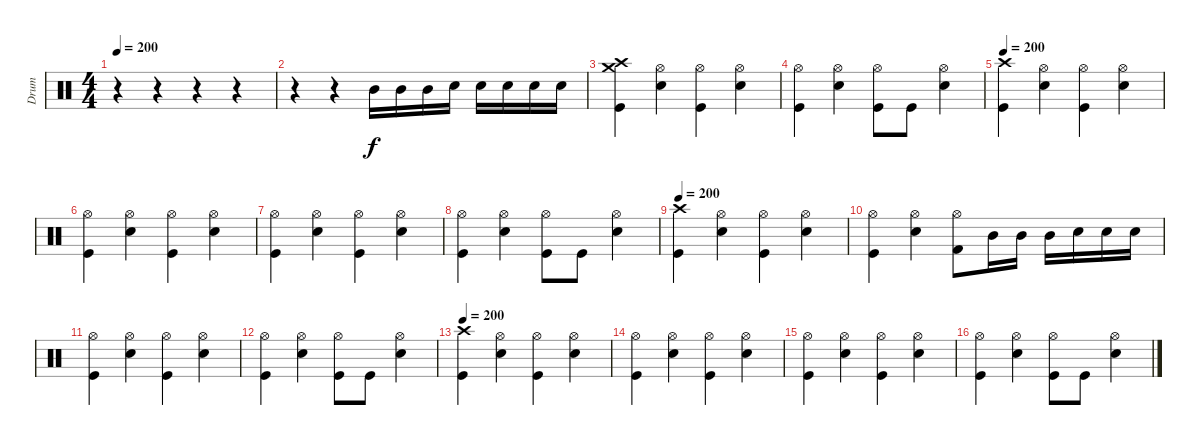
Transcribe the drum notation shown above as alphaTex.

\track ("Drum" "Drum") {instrument percussion}
\staff {score}
\articulation defaults
\ts (4 4)
\tempo 200
\clef neutral
\ks c
r.4{dy f} r.4 r.4 r.4 |
r.4 r.4 "Mid Tom (hit)".16 "Mid Tom (hit)".16 "Mid Tom (hit)".16 "Electric Snare (hit)".16 "Electric Snare (hit)".16 "Electric Snare (hit)".16 "Electric Snare (hit)".16 "Electric Snare (hit)".16 |
("Crash medium (hit)" "Crash high (hit)" "Kick (hit)").4 ("Hi-Hat (open)" "Electric Snare (hit)").4 ("Hi-Hat (open)" "Kick (hit)").4 ("Hi-Hat (open)" "Electric Snare (hit)").4 |
("Hi-Hat (open)" "Kick (hit)").4 ("Hi-Hat (open)" "Electric Snare (hit)").4 ("Hi-Hat (open)" "Kick (hit)").8 "Kick (hit)".8 ("Hi-Hat (open)" "Electric Snare (hit)").4 |
\tempo 200
("Crash high (hit)" "Kick (hit)").4 ("Hi-Hat (open)" "Electric Snare (hit)").4 ("Hi-Hat (open)" "Kick (hit)").4 ("Hi-Hat (open)" "Electric Snare (hit)").4 |
("Hi-Hat (open)" "Kick (hit)").4 ("Hi-Hat (open)" "Electric Snare (hit)").4 ("Hi-Hat (open)" "Kick (hit)").4 ("Hi-Hat (open)" "Electric Snare (hit)").4 |
("Hi-Hat (open)" "Kick (hit)").4 ("Hi-Hat (open)" "Electric Snare (hit)").4 ("Hi-Hat (open)" "Kick (hit)").4 ("Hi-Hat (open)" "Electric Snare (hit)").4 |
("Hi-Hat (open)" "Kick (hit)").4 ("Hi-Hat (open)" "Electric Snare (hit)").4 ("Hi-Hat (open)" "Kick (hit)").8 "Kick (hit)".8 ("Hi-Hat (open)" "Electric Snare (hit)").4 |
\tempo 200
("Crash high (hit)" "Kick (hit)").4 ("Hi-Hat (open)" "Electric Snare (hit)").4 ("Hi-Hat (open)" "Kick (hit)").4 ("Hi-Hat (open)" "Electric Snare (hit)").4 |
("Hi-Hat (open)" "Kick (hit)").4 ("Hi-Hat (open)" "Electric Snare (hit)").4 ("Hi-Hat (open)" "Kick (hit) 2").8 "Mid Tom (hit)".16 "Mid Tom (hit)".16 "Mid Tom (hit)".16 "Electric Snare (hit)".16 "Electric Snare (hit)".16 "Electric Snare (hit)".16 |
("Hi-Hat (open)" "Kick (hit)").4 ("Hi-Hat (open)" "Electric Snare (hit)").4 ("Hi-Hat (open)" "Kick (hit)").4 ("Hi-Hat (open)" "Electric Snare (hit)").4 |
("Hi-Hat (open)" "Kick (hit)").4 ("Hi-Hat (open)" "Electric Snare (hit)").4 ("Hi-Hat (open)" "Kick (hit)").8 "Kick (hit)".8 ("Hi-Hat (open)" "Electric Snare (hit)").4 |
\tempo 200
("Crash high (hit)" "Kick (hit)").4 ("Hi-Hat (open)" "Electric Snare (hit)").4 ("Hi-Hat (open)" "Kick (hit)").4 ("Hi-Hat (open)" "Electric Snare (hit)").4 |
("Hi-Hat (open)" "Kick (hit)").4 ("Hi-Hat (open)" "Electric Snare (hit)").4 ("Hi-Hat (open)" "Kick (hit)").4 ("Hi-Hat (open)" "Electric Snare (hit)").4 |
("Hi-Hat (open)" "Kick (hit)").4 ("Hi-Hat (open)" "Electric Snare (hit)").4 ("Hi-Hat (open)" "Kick (hit)").4 ("Hi-Hat (open)" "Electric Snare (hit)").4 |
("Hi-Hat (open)" "Kick (hit)").4 ("Hi-Hat (open)" "Electric Snare (hit)").4 ("Hi-Hat (open)" "Kick (hit)").8 "Kick (hit)".8 ("Hi-Hat (open)" "Electric Snare (hit)").4
